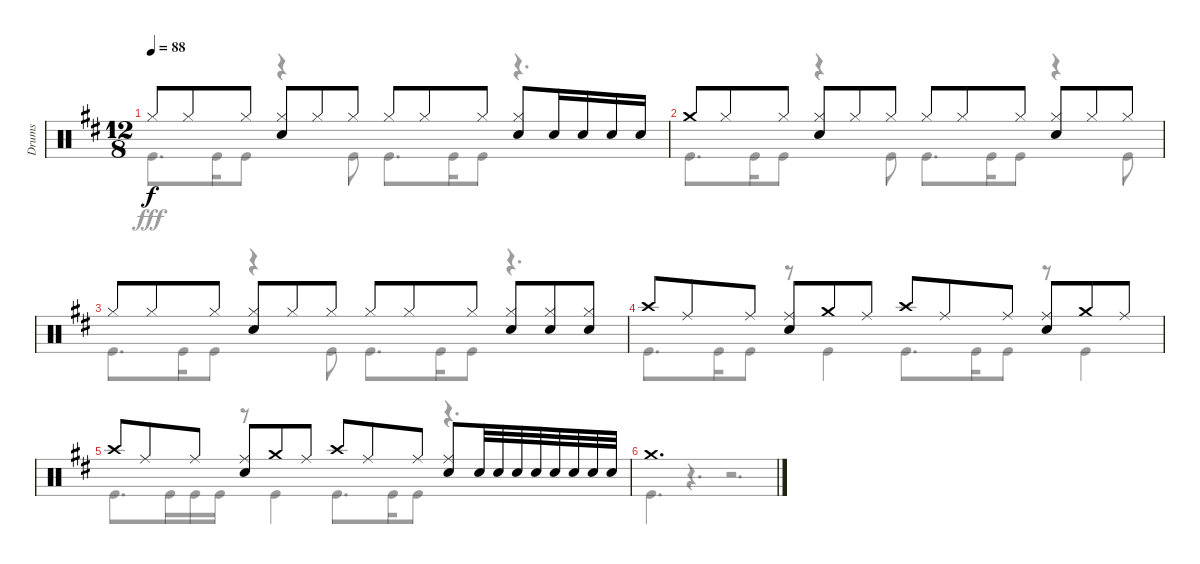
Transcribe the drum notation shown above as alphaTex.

\track ("Drums" "Drums") {instrument percussion}
\staff {score}
\articulation defaults
\voice
\ts (12 8)
\tempo 88
\clef neutral
\ks d "Hi-Hat (closed)".8{dy f} "Hi-Hat (closed)".8 "Hi-Hat (closed)".8
("Hi-Hat (closed)" "Snare (hit) 2").8 "Hi-Hat (closed)".8 "Hi-Hat (closed)".8 "Hi-Hat (closed)".8 "Hi-Hat (closed)".8 "Hi-Hat (closed)".8 ("Hi-Hat (closed)" "Snare (hit) 2").8 "Snare (hit) 2".16 "Snare (hit) 2".16 "Snare (hit) 2".16 "Snare (hit) 2".16 |
"Crash medium (hit)".8 "Hi-Hat (closed)".8 "Hi-Hat (closed)".8 ("Hi-Hat (closed)" "Snare (hit) 2").8 "Hi-Hat (closed)".8 "Hi-Hat (closed)".8 "Hi-Hat (closed)".8 "Hi-Hat (closed)".8 "Hi-Hat (closed)".8 ("Hi-Hat (closed)" "Snare (hit) 2").8 "Hi-Hat (closed)".8 "Hi-Hat (closed)".8 |
"Hi-Hat (closed)".8 "Hi-Hat (closed)".8 "Hi-Hat (closed)".8 ("Hi-Hat (closed)" "Snare (hit) 2").8 "Hi-Hat (closed)".8 "Hi-Hat (closed)".8 "Hi-Hat (closed)".8 "Hi-Hat (closed)".8 "Hi-Hat (closed)".8 ("Hi-Hat (closed)" "Snare (hit) 2").8 ("Hi-Hat (closed)" "Snare (hit) 2").8 ("Hi-Hat (closed)" "Snare (hit) 2").8 |
"Crash high (hit)".8 "Ride (middle)".8 "Ride (middle)".8 ("Ride (middle)" "Snare (hit) 2").8 "Crash medium (hit)".8 "Ride (middle)".8 "Crash high (hit)".8 "Ride (middle)".8 "Ride (middle)".8 ("Ride (middle)" "Snare (hit) 2").8 "Crash medium (hit)".8 "Ride (middle)".8 |
"Crash high (hit)".8 "Ride (middle)".8 "Ride (middle)".8 ("Ride (middle)" "Snare (hit) 2").8 "Crash medium (hit)".8 "Ride (middle)".8 "Crash high (hit)".8 "Ride (middle)".8 "Ride (middle)".8 ("Ride (middle)" "Snare (hit) 2").8 "Snare (hit) 2".32 "Snare (hit) 2".32 "Snare (hit) 2".32 "Snare (hit) 2".32 "Snare (hit) 2".32 "Snare (hit) 2".32 "Snare (hit) 2".32 "Snare (hit) 2".32 |
"Crash medium (hit)".1{d}
\voice
\clef neutral
\ottava regular
\simile none
\ks d "Kick (hit)".8{d dy fff} "Kick (hit)".16 "Kick (hit)".8
r.4 "Kick (hit)".8 "Kick (hit)".8{d} "Kick (hit)".16 "Kick (hit)".8 r.4{d} |
"Kick (hit)".8{d} "Kick (hit)".16 "Kick (hit)".8 r.4 "Kick (hit)".8 "Kick (hit)".8{d} "Kick (hit)".16 "Kick (hit)".8 r.4 "Kick (hit)".8 |
"Kick (hit)".8{d} "Kick (hit)".16 "Kick (hit)".8 r.4 "Kick (hit)".8 "Kick (hit)".8{d} "Kick (hit)".16 "Kick (hit)".8 r.4{d} |
"Kick (hit)".8{d} "Kick (hit)".16 "Kick (hit)".8 r.8 "Kick (hit)".4 "Kick (hit)".8{d} "Kick (hit)".16 "Kick (hit)".8 r.8 "Kick (hit)".4 |
"Kick (hit)".8{d} "Kick (hit)".16 "Kick (hit)".16 "Kick (hit)".16 r.8 "Kick (hit)".4 "Kick (hit)".8{d} "Kick (hit)".16 "Kick (hit)".8 r.4{d} |
"Kick (hit)".4{d} r.4{d} r.2{d}
